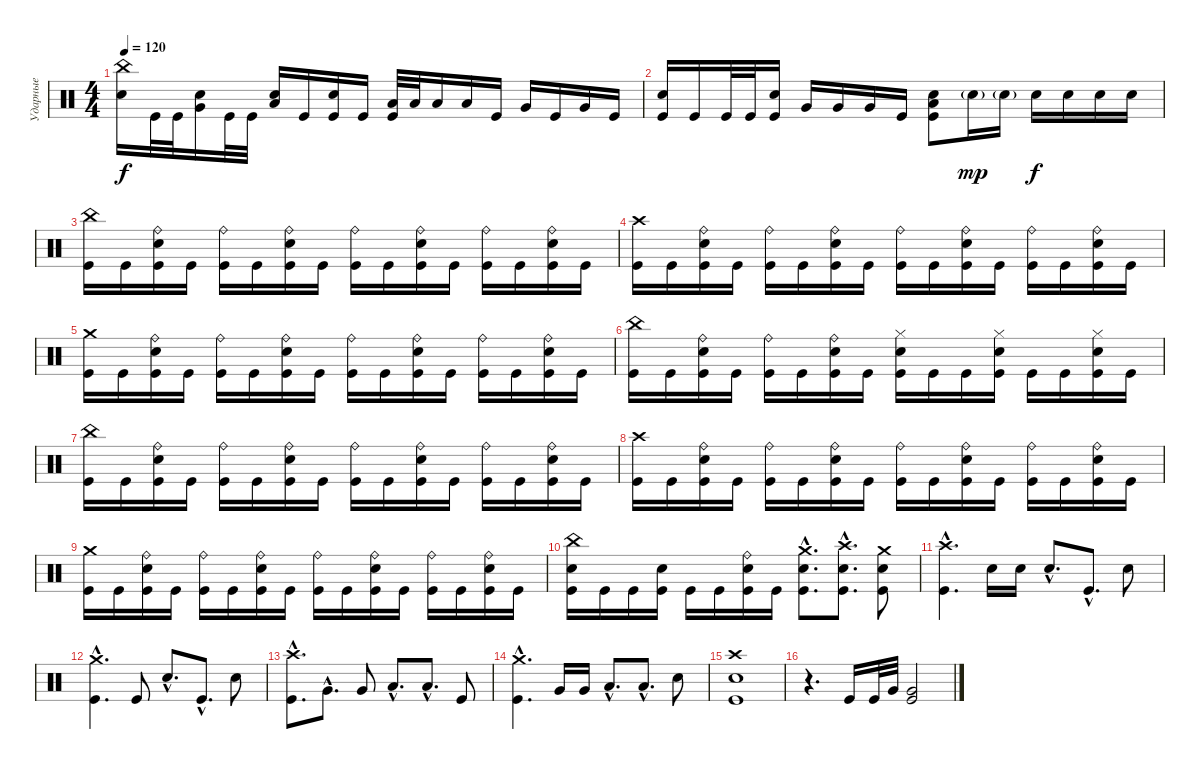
\track ("Ударные" "Ударные") {instrument percussion}
\staff {score}
\articulation defaults
\ts (4 4)
\tempo 120
\clef neutral
\ks c
("China (hit)" "Electric Snare (hit)").16{dy f} "Kick (hit)".32 "Kick (hit)".32 ("Very Low Tom (hit)" "Electric Snare (hit)").16 "Kick (hit)".32 "Kick (hit)".32 ("Low Tom (hit)" "Electric Snare (hit)").16 "Kick (hit)".16 ("Electric Snare (hit)" "Kick (hit)").16 "Kick (hit)".16 ("Low Tom (hit)" "Kick (hit)").32 "Low Tom (hit)".32 "Low Tom (hit)".16 "Low Tom (hit)".16 "Kick (hit)".16 "Very Low Tom (hit)".16 "Kick (hit)".16 "Very Low Tom (hit)".16 "Kick (hit)".16 |
("Electric Snare (hit)" "Kick (hit)").16 "Kick (hit)".16 "Kick (hit)".32 "Kick (hit)".32 ("Electric Snare (hit)" "Kick (hit)").16 "Very Low Tom (hit)".16 "Very Low Tom (hit)".16 "Very Low Tom (hit)".16 "Kick (hit)".16 ("Electric Snare (hit)" "Low Tom (hit)" "Kick (hit)").8 "Electric Snare (hit)"{g}.16{dy mp} "Electric Snare (hit)"{g}.16 "Electric Snare (hit)".16{dy f} "Electric Snare (hit)".16 "Electric Snare (hit)".16 "Electric Snare (hit)".16 |
("China (hit)" "Kick (hit)").16 "Kick (hit)".16 ("Ride (bell)" "Electric Snare (hit)" "Kick (hit)").16 "Kick (hit)".16 ("Ride (bell)" "Kick (hit)").16 "Kick (hit)".16 ("Ride (bell)" "Electric Snare (hit)" "Kick (hit)").16 "Kick (hit)".16 ("Ride (bell)" "Kick (hit)").16 "Kick (hit)".16 ("Ride (bell)" "Electric Snare (hit)" "Kick (hit)").16 "Kick (hit)".16 ("Ride (bell)" "Kick (hit)").16 "Kick (hit)".16 ("Ride (bell)" "Electric Snare (hit)" "Kick (hit)").16 "Kick (hit)".16 |
("Crash high (hit)" "Kick (hit)").16 "Kick (hit)".16 ("Ride (bell)" "Electric Snare (hit)" "Kick (hit)").16 "Kick (hit)".16 ("Ride (bell)" "Kick (hit)").16 "Kick (hit)".16 ("Ride (bell)" "Electric Snare (hit)" "Kick (hit)").16 "Kick (hit)".16 ("Ride (bell)" "Kick (hit)").16 "Kick (hit)".16 ("Ride (bell)" "Electric Snare (hit)" "Kick (hit)").16 "Kick (hit)".16 ("Ride (bell)" "Kick (hit)").16 "Kick (hit)".16 ("Ride (bell)" "Electric Snare (hit)" "Kick (hit)").16 "Kick (hit)".16 |
("Crash medium (hit)" "Kick (hit)").16 "Kick (hit)".16 ("Ride (bell)" "Electric Snare (hit)" "Kick (hit)").16 "Kick (hit)".16 ("Ride (bell)" "Kick (hit)").16 "Kick (hit)".16 ("Ride (bell)" "Electric Snare (hit)" "Kick (hit)").16 "Kick (hit)".16 ("Ride (bell)" "Kick (hit)").16 "Kick (hit)".16 ("Ride (bell)" "Electric Snare (hit)" "Kick (hit)").16 "Kick (hit)".16 ("Ride (bell)" "Kick (hit)").16 "Kick (hit)".16 ("Ride (bell)" "Electric Snare (hit)" "Kick (hit)").16 "Kick (hit)".16 |
("China (hit)" "Kick (hit)").16 "Kick (hit)".16 ("Ride (bell)" "Electric Snare (hit)" "Kick (hit)").16 "Kick (hit)".16 ("Ride (bell)" "Kick (hit)").16 "Kick (hit)".16 ("Ride (bell)" "Electric Snare (hit)" "Kick (hit)").16 "Kick (hit)".16 ("Hi-Hat (closed)" "Electric Snare (hit)" "Kick (hit)").16 "Kick (hit)".16 "Kick (hit)".16 ("Hi-Hat (closed)" "Electric Snare (hit)" "Kick (hit)").16 "Kick (hit)".16 "Kick (hit)".16 ("Hi-Hat (closed)" "Electric Snare (hit)" "Kick (hit)").16 "Kick (hit)".16 |
("China (hit)" "Kick (hit)").16 "Kick (hit)".16 ("Ride (bell)" "Electric Snare (hit)" "Kick (hit)").16 "Kick (hit)".16 ("Ride (bell)" "Kick (hit)").16 "Kick (hit)".16 ("Ride (bell)" "Electric Snare (hit)" "Kick (hit)").16 "Kick (hit)".16 ("Ride (bell)" "Kick (hit)").16 "Kick (hit)".16 ("Ride (bell)" "Electric Snare (hit)" "Kick (hit)").16 "Kick (hit)".16 ("Ride (bell)" "Kick (hit)").16 "Kick (hit)".16 ("Ride (bell)" "Electric Snare (hit)" "Kick (hit)").16 "Kick (hit)".16 |
("Crash high (hit)" "Kick (hit)").16 "Kick (hit)".16 ("Ride (bell)" "Electric Snare (hit)" "Kick (hit)").16 "Kick (hit)".16 ("Ride (bell)" "Kick (hit)").16 "Kick (hit)".16 ("Ride (bell)" "Electric Snare (hit)" "Kick (hit)").16 "Kick (hit)".16 ("Ride (bell)" "Kick (hit)").16 "Kick (hit)".16 ("Ride (bell)" "Electric Snare (hit)" "Kick (hit)").16 "Kick (hit)".16 ("Ride (bell)" "Kick (hit)").16 "Kick (hit)".16 ("Ride (bell)" "Electric Snare (hit)" "Kick (hit)").16 "Kick (hit)".16 |
("Crash medium (hit)" "Kick (hit)").16 "Kick (hit)".16 ("Ride (bell)" "Electric Snare (hit)" "Kick (hit)").16 "Kick (hit)".16 ("Ride (bell)" "Kick (hit)").16 "Kick (hit)".16 ("Ride (bell)" "Electric Snare (hit)" "Kick (hit)").16 "Kick (hit)".16 ("Ride (bell)" "Kick (hit)").16 "Kick (hit)".16 ("Ride (bell)" "Electric Snare (hit)" "Kick (hit)").16 "Kick (hit)".16 ("Ride (bell)" "Kick (hit)").16 "Kick (hit)".16 ("Ride (bell)" "Electric Snare (hit)" "Kick (hit)").16 "Kick (hit)".16 |
("China (hit)" "Electric Snare (hit)" "Kick (hit)").16 "Kick (hit)".16 "Kick (hit)".16 ("Electric Snare (hit)" "Kick (hit)").16 "Kick (hit)".16 "Kick (hit)".16 ("Ride (bell)" "Electric Snare (hit)" "Kick (hit)").16 "Kick (hit)".16 ("Crash medium (hit)"{hac} "Electric Snare (hit)"{hac} "Kick (hit)"{hac}).8{d} ("Crash high (hit)"{hac} "Electric Snare (hit)"{hac} "Kick (hit)"{hac}).8{d} ("Crash medium (hit)" "Electric Snare (hit)" "Kick (hit)").8 |
("Crash high (hit)"{hac} "Kick (hit)"{hac}).4{d} "Electric Snare (hit)".16 "Electric Snare (hit)".16 "Electric Snare (hit)"{hac}.8{d} "Kick (hit)"{hac}.8{d} "Electric Snare (hit)".8 |
("Crash medium (hit)"{hac} "Kick (hit)"{hac}).4{d} "Kick (hit)".8 "Electric Snare (hit)"{hac}.8{d} "Kick (hit)"{hac}.8{d} "Electric Snare (hit)".8 |
("Crash high (hit)"{hac} "Kick (hit)"{hac}).8{d} "Very Low Tom (hit)"{hac}.8{d} "Very Low Tom (hit)".8 "Low Tom (hit)"{hac}.8{d} "Low Tom (hit)"{hac}.8{d} "Kick (hit)".8 |
("Crash medium (hit)"{hac} "Kick (hit)"{hac}).4{d} "Very Low Tom (hit)".16 "Very Low Tom (hit)".16 "Low Tom (hit)"{hac}.8{d} "Low Tom (hit)"{hac}.8{d} "Electric Snare (hit)".8 |
("Crash high (hit)" "Electric Snare (hit)" "Kick (hit)").1 |
r.4{d} "Kick (hit)".16 "Kick (hit)".32 "Very Low Tom (hit)".32 ("Very Low Tom (hit)" "Kick (hit)").2
